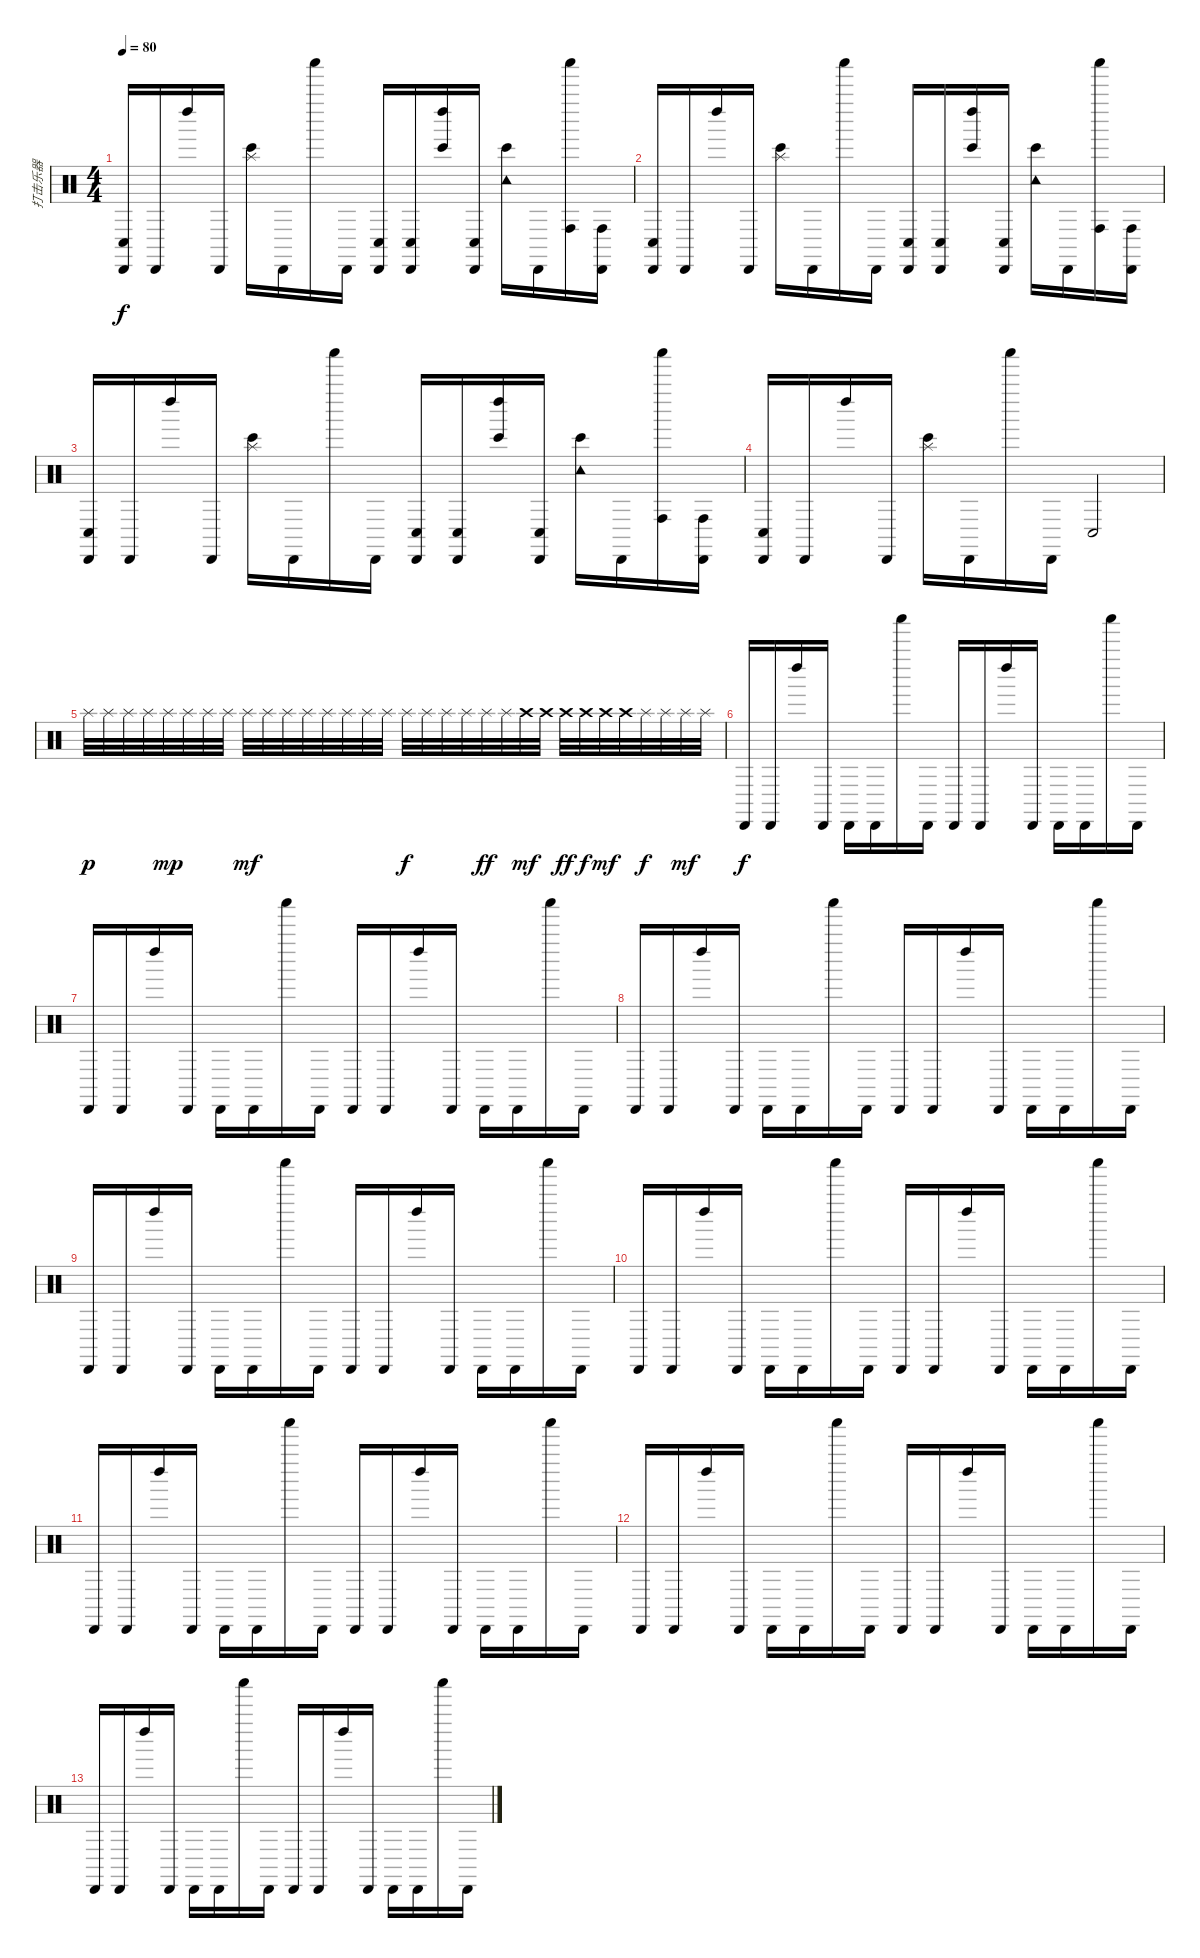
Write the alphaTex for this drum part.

\track ("打击乐器" "打击乐器") {instrument percussion}
\staff {score}
\articulation defaults
\ts (4 4)
\tempo 80
\clef neutral
\ks c
("Cabasa (hit)" "Conga low (hit)").16{dy f} "Cabasa (hit)".16 "Left Maraca (hit)".16 "Cabasa (hit)".16 ("Splash (hit)" "Bongo High (hit)").16 "Cabasa (hit)".16 "Shaker (hit)".16 "Cabasa (hit)".16 ("Cabasa (hit)" "Conga low (hit)").16 ("Cabasa (hit)" "Conga low (hit)").16 ("Left Maraca (hit)" "Bongo High (hit)").16 ("Cabasa (hit)" "Conga low (hit)").16 ("Tambourine (hit)" "Bongo High (hit)").16 "Cabasa (hit)".16 ("Shaker (hit)" "Conga high (hit)").16 ("Cabasa (hit)" "Conga high (hit)").16 |
("Cabasa (hit)" "Conga low (hit)").16 "Cabasa (hit)".16 "Left Maraca (hit)".16 "Cabasa (hit)".16 ("Splash (hit)" "Bongo High (hit)").16 "Cabasa (hit)".16 "Shaker (hit)".16 "Cabasa (hit)".16 ("Cabasa (hit)" "Conga low (hit)").16 ("Cabasa (hit)" "Conga low (hit)").16 ("Left Maraca (hit)" "Bongo High (hit)").16 ("Cabasa (hit)" "Conga low (hit)").16 ("Tambourine (hit)" "Bongo High (hit)").16 "Cabasa (hit)".16 ("Shaker (hit)" "Conga high (hit)").16 ("Cabasa (hit)" "Conga high (hit)").16 |
("Cabasa (hit)" "Conga low (hit)").16 "Cabasa (hit)".16 "Left Maraca (hit)".16 "Cabasa (hit)".16 ("Splash (hit)" "Bongo High (hit)").16 "Cabasa (hit)".16 "Shaker (hit)".16 "Cabasa (hit)".16 ("Cabasa (hit)" "Conga low (hit)").16 ("Cabasa (hit)" "Conga low (hit)").16 ("Left Maraca (hit)" "Bongo High (hit)").16 ("Cabasa (hit)" "Conga low (hit)").16 ("Tambourine (hit)" "Bongo High (hit)").16 "Cabasa (hit)".16 ("Shaker (hit)" "Conga high (hit)").16 ("Cabasa (hit)" "Conga high (hit)").16 |
("Cabasa (hit)" "Conga low (hit)").16 "Cabasa (hit)".16 "Left Maraca (hit)".16 "Cabasa (hit)".16 ("Splash (hit)" "Bongo High (hit)").16 "Cabasa (hit)".16 "Shaker (hit)".16 "Cabasa (hit)".16 "Conga low (hit)".2 |
"Splash (hit)".32{dy p} "Splash (hit)".32 "Splash (hit)".32 "Splash (hit)".32 "Splash (hit)".32{dy mp} "Splash (hit)".32 "Splash (hit)".32 "Splash (hit)".32 "Splash (hit)".32{dy mf} "Splash (hit)".32 "Splash (hit)".32 "Splash (hit)".32 "Splash (hit)".32 "Splash (hit)".32 "Splash (hit)".32 "Splash (hit)".32 "Splash (hit)".32{dy f} "Splash (hit)".32 "Splash (hit)".32 "Splash (hit)".32 "Splash (hit)".32{dy ff} "Splash (hit)".32 "Crash high (hit)".32{dy mf} "Crash high (hit)".32 "Crash high (hit)".32{dy ff} "Crash high (hit)".32{dy f} "Crash high (hit)".32{dy mf} "Crash high (hit)".32 "Splash (hit)".32{dy f} "Splash (hit)".32 "Splash (hit)".32{dy mf} "Splash (hit)".32 |
"Cabasa (hit)".16{dy f} "Cabasa (hit)".16 "Left Maraca (hit)".16 "Cabasa (hit)".16 "Cabasa (hit)".16 "Cabasa (hit)".16 "Shaker (hit)".16 "Cabasa (hit)".16 "Cabasa (hit)".16 "Cabasa (hit)".16 "Left Maraca (hit)".16 "Cabasa (hit)".16 "Cabasa (hit)".16 "Cabasa (hit)".16 "Shaker (hit)".16 "Cabasa (hit)".16 |
"Cabasa (hit)".16 "Cabasa (hit)".16 "Left Maraca (hit)".16 "Cabasa (hit)".16 "Cabasa (hit)".16 "Cabasa (hit)".16 "Shaker (hit)".16 "Cabasa (hit)".16 "Cabasa (hit)".16 "Cabasa (hit)".16 "Left Maraca (hit)".16 "Cabasa (hit)".16 "Cabasa (hit)".16 "Cabasa (hit)".16 "Shaker (hit)".16 "Cabasa (hit)".16 |
"Cabasa (hit)".16 "Cabasa (hit)".16 "Left Maraca (hit)".16 "Cabasa (hit)".16 "Cabasa (hit)".16 "Cabasa (hit)".16 "Shaker (hit)".16 "Cabasa (hit)".16 "Cabasa (hit)".16 "Cabasa (hit)".16 "Left Maraca (hit)".16 "Cabasa (hit)".16 "Cabasa (hit)".16 "Cabasa (hit)".16 "Shaker (hit)".16 "Cabasa (hit)".16 |
"Cabasa (hit)".16 "Cabasa (hit)".16 "Left Maraca (hit)".16 "Cabasa (hit)".16 "Cabasa (hit)".16 "Cabasa (hit)".16 "Shaker (hit)".16 "Cabasa (hit)".16 "Cabasa (hit)".16 "Cabasa (hit)".16 "Left Maraca (hit)".16 "Cabasa (hit)".16 "Cabasa (hit)".16 "Cabasa (hit)".16 "Shaker (hit)".16 "Cabasa (hit)".16 |
"Cabasa (hit)".16 "Cabasa (hit)".16 "Left Maraca (hit)".16 "Cabasa (hit)".16 "Cabasa (hit)".16 "Cabasa (hit)".16 "Shaker (hit)".16 "Cabasa (hit)".16 "Cabasa (hit)".16 "Cabasa (hit)".16 "Left Maraca (hit)".16 "Cabasa (hit)".16 "Cabasa (hit)".16 "Cabasa (hit)".16 "Shaker (hit)".16 "Cabasa (hit)".16 |
"Cabasa (hit)".16 "Cabasa (hit)".16 "Left Maraca (hit)".16 "Cabasa (hit)".16 "Cabasa (hit)".16 "Cabasa (hit)".16 "Shaker (hit)".16 "Cabasa (hit)".16 "Cabasa (hit)".16 "Cabasa (hit)".16 "Left Maraca (hit)".16 "Cabasa (hit)".16 "Cabasa (hit)".16 "Cabasa (hit)".16 "Shaker (hit)".16 "Cabasa (hit)".16 |
"Cabasa (hit)".16 "Cabasa (hit)".16 "Left Maraca (hit)".16 "Cabasa (hit)".16 "Cabasa (hit)".16 "Cabasa (hit)".16 "Shaker (hit)".16 "Cabasa (hit)".16 "Cabasa (hit)".16 "Cabasa (hit)".16 "Left Maraca (hit)".16 "Cabasa (hit)".16 "Cabasa (hit)".16 "Cabasa (hit)".16 "Shaker (hit)".16 "Cabasa (hit)".16 |
"Cabasa (hit)".16 "Cabasa (hit)".16 "Left Maraca (hit)".16 "Cabasa (hit)".16 "Cabasa (hit)".16 "Cabasa (hit)".16 "Shaker (hit)".16 "Cabasa (hit)".16 "Cabasa (hit)".16 "Cabasa (hit)".16 "Left Maraca (hit)".16 "Cabasa (hit)".16 "Cabasa (hit)".16 "Cabasa (hit)".16 "Shaker (hit)".16 "Cabasa (hit)".16
